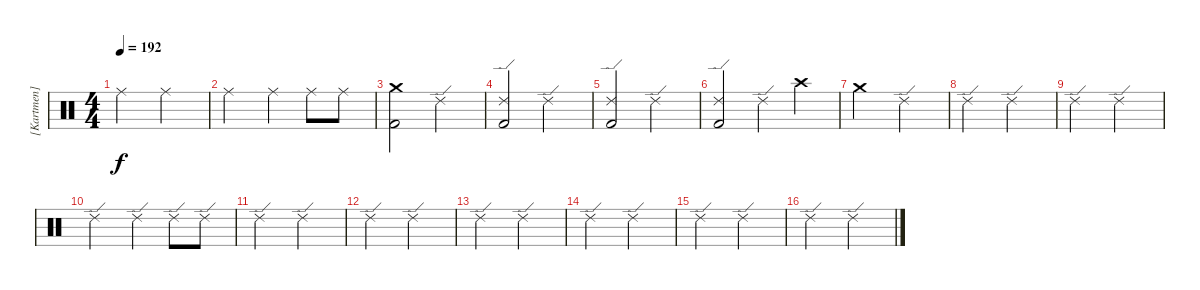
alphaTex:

\track ("[Kartmen] - Drums" "[Kartmen] ") {instrument percussion}
\staff {score}
\articulation defaults
\ts (4 4)
\tempo 192
\clef neutral
\ks c "Ride (middle)".2{dy f} "Ride (middle)".2
|
"Ride (middle)".2 "Ride (middle)".4 "Ride (middle)".8 "Ride (middle)".8 |
("Crash medium (hit)" "Kick (hit) 2").2 "Ride (edge) 2".2 |
("Ride (edge) 2" "Kick (hit) 2").2 "Ride (edge) 2".2 |
("Ride (edge) 2" "Kick (hit) 2").2 "Ride (edge) 2".2 |
("Ride (edge) 2" "Kick (hit) 2").2 "Ride (edge) 2".4 "Crash high (hit)".4 |
"Crash medium (hit)".2 "Ride (edge) 2".2 |
"Ride (edge) 2".2 "Ride (edge) 2".2 |
"Ride (edge) 2".2 "Ride (edge) 2".2 |
"Ride (edge) 2".2 "Ride (edge) 2".4 "Ride (edge) 2".8 "Ride (edge) 2".8 |
"Ride (edge) 2".2 "Ride (edge) 2".2 |
"Ride (edge) 2".2 "Ride (edge) 2".2 |
"Ride (edge) 2".2 "Ride (edge) 2".2 |
"Ride (edge) 2".2 "Ride (edge) 2".2 |
"Ride (edge) 2".2 "Ride (edge) 2".2 |
"Ride (edge) 2".2 "Ride (edge) 2".2
